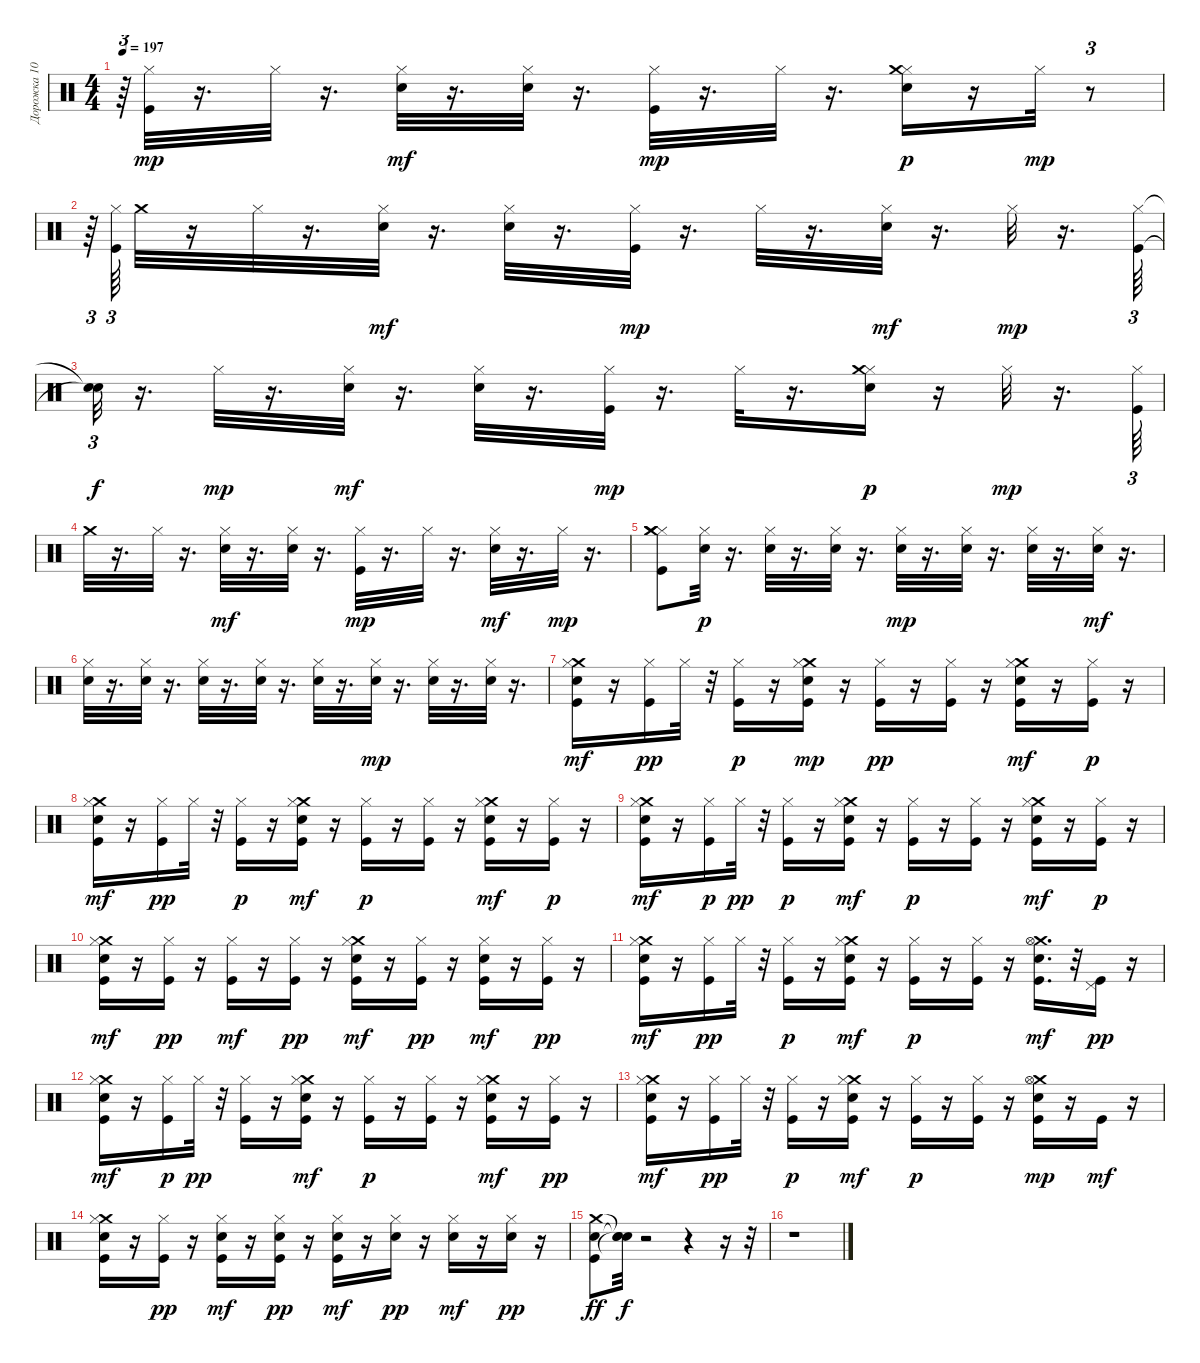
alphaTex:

\track ("Дорожка 10" "Дорожка 10") {instrument percussion}
\staff {score}
\articulation defaults
\ts (4 4)
\tempo 197
\clef neutral
\ks c
r.64{tu (3 2) dy mp} ("Hi-Hat (closed)" "Kick (hit)").32 r.16{d} "Hi-Hat (closed)".32 r.16{d} ("Hi-Hat (closed)" "Electric Snare (hit)").32{dy mf} r.16{d} ("Hi-Hat (closed)" "Electric Snare (hit)").32 r.16{d} ("Hi-Hat (closed)" "Kick (hit)").32{dy mp} r.16{d} "Hi-Hat (closed)".32 r.16{d} ("Hi-Hat (closed)" "Electric Snare (hit)" "Crash medium (hit)").16{dy p} r.16 "Hi-Hat (closed)".32{dy mp} r.8{tu (3 2)} |
r.64{tu (3 2)} ("Hi-Hat (closed)" "Kick (hit)").64{tu (3 2)} "Crash medium (hit)".32 r.16 "Hi-Hat (closed)".32 r.16{d} ("Hi-Hat (closed)" "Electric Snare (hit)").32{dy mf} r.16{d} ("Hi-Hat (closed)" "Electric Snare (hit)").32 r.16{d} ("Hi-Hat (closed)" "Kick (hit)").32{dy mp} r.16{d} "Hi-Hat (closed)".32 r.16{d} ("Hi-Hat (closed)" "Electric Snare (hit)").32{dy mf} r.16{d} "Hi-Hat (closed)".32{dy mp} r.16{d} ("Hi-Hat (closed)" "Kick (hit)").64{tu (3 2)} |
("Snare (hit)"{t} "Snare (hit)"{t}).32{tu (3 2) dy f} r.16{d} "Hi-Hat (closed)".32{dy mp} r.16{d} ("Hi-Hat (closed)" "Electric Snare (hit)").32{dy mf} r.16{d} ("Hi-Hat (closed)" "Electric Snare (hit)").32 r.16{d} ("Hi-Hat (closed)" "Kick (hit)").32{dy mp} r.16{d} "Hi-Hat (closed)".32 r.16{d} ("Hi-Hat (closed)" "Electric Snare (hit)" "Crash medium (hit)").16{dy p} r.16 "Hi-Hat (closed)".32{dy mp} r.16{d} ("Hi-Hat (closed)" "Kick (hit)").64{tu (3 2)} |
"Crash medium (hit)".32 r.16{d} "Hi-Hat (closed)".32 r.16{d} ("Hi-Hat (closed)" "Electric Snare (hit)").32{dy mf} r.16{d} ("Hi-Hat (closed)" "Electric Snare (hit)").32 r.16{d} ("Hi-Hat (closed)" "Kick (hit)").32{dy mp} r.16{d} "Hi-Hat (closed)".32 r.16{d} ("Hi-Hat (closed)" "Electric Snare (hit)").32{dy mf} r.16{d} "Hi-Hat (closed)".32{dy mp} r.16{d} |
("Hi-Hat (closed)" "Kick (hit)" "Crash medium (hit)" "Crash medium (hit)").8 ("Hi-Hat (closed)" "Electric Snare (hit)").32{dy p} r.16{d} ("Hi-Hat (closed)" "Electric Snare (hit)").32 r.16{d} ("Hi-Hat (closed)" "Electric Snare (hit)").32 r.16{d} ("Hi-Hat (closed)" "Electric Snare (hit)").32{dy mp} r.16{d} ("Hi-Hat (closed)" "Electric Snare (hit)").32 r.16{d} ("Hi-Hat (closed)" "Electric Snare (hit)").32 r.16{d} ("Hi-Hat (closed)" "Electric Snare (hit)").32{dy mf} r.16{d} |
("Hi-Hat (closed)" "Electric Snare (hit)").32 r.16{d} ("Hi-Hat (closed)" "Electric Snare (hit)").32 r.16{d} ("Hi-Hat (closed)" "Electric Snare (hit)").32 r.16{d} ("Hi-Hat (closed)" "Electric Snare (hit)").32 r.16{d} ("Hi-Hat (closed)" "Electric Snare (hit)").32 r.16{d} ("Hi-Hat (closed)" "Electric Snare (hit)").32{dy mp} r.16{d} ("Hi-Hat (closed)" "Electric Snare (hit)").32 r.16{d} ("Hi-Hat (closed)" "Electric Snare (hit)").32 r.16{d} |
("Snare (hit) 2" "Crash medium (hit)" "Kick (hit)" "Hi-Hat (closed)").16{dy mf} r.16 ("Kick (hit)" "Hi-Hat (closed)").16{dy pp} "Hi-Hat (closed)".32 r.32 ("Kick (hit)" "Hi-Hat (closed)").16{dy p} r.16 ("Crash medium (hit)" "Snare (hit) 2" "Kick (hit)" "Hi-Hat (closed)").16{dy mp} r.16 ("Kick (hit)" "Hi-Hat (closed)").16{dy pp} r.16 ("Kick (hit)" "Hi-Hat (closed)").16 r.16 ("Crash medium (hit)" "Snare (hit) 2" "Kick (hit)" "Hi-Hat (closed)").16{dy mf} r.16 ("Kick (hit)" "Hi-Hat (closed)").16{dy p} r.16 |
("Crash medium (hit)" "Snare (hit) 2" "Kick (hit)" "Hi-Hat (closed)").16{dy mf} r.16 ("Kick (hit)" "Hi-Hat (closed)").16{dy pp} "Hi-Hat (closed)".32 r.32 ("Kick (hit)" "Hi-Hat (closed)").16{dy p} r.16 ("Crash medium (hit)" "Snare (hit) 2" "Kick (hit)" "Hi-Hat (closed)").16{dy mf} r.16 ("Kick (hit)" "Hi-Hat (closed)").16{dy p} r.16 ("Kick (hit)" "Hi-Hat (closed)").16 r.16 ("Crash medium (hit)" "Snare (hit) 2" "Kick (hit)" "Hi-Hat (closed)").16{dy mf} r.16 ("Kick (hit)" "Hi-Hat (closed)").16{dy p} r.16 |
("Crash medium (hit)" "Snare (hit) 2" "Kick (hit)" "Hi-Hat (closed)").16{dy mf} r.16 ("Kick (hit)" "Hi-Hat (closed)").16{dy p} "Hi-Hat (closed)".32{dy pp} r.32 ("Kick (hit)" "Hi-Hat (closed)").16{dy p} r.16 ("Crash medium (hit)" "Snare (hit) 2" "Kick (hit)" "Hi-Hat (closed)").16{dy mf} r.16 ("Kick (hit)" "Hi-Hat (closed)").16{dy p} r.16 ("Kick (hit)" "Hi-Hat (closed)").16 r.16 ("Crash medium (hit)" "Snare (hit) 2" "Kick (hit)" "Hi-Hat (closed)").16{dy mf} r.16 ("Kick (hit)" "Hi-Hat (closed)").16{dy p} r.16 |
("Crash medium (hit)" "Snare (hit) 2" "Kick (hit)" "Hi-Hat (closed)").16{dy mf} r.16 ("Kick (hit)" "Hi-Hat (closed)").16{dy pp} r.16 ("Kick (hit)" "Hi-Hat (closed)").16{dy mf} r.16 ("Kick (hit)" "Hi-Hat (closed)").16{dy pp} r.16 ("Snare (hit) 2" "Crash medium (hit)" "Kick (hit)" "Hi-Hat (closed)").16{dy mf} r.16 ("Kick (hit)" "Hi-Hat (closed)").16{dy pp} r.16 ("Snare (hit) 2" "Kick (hit)" "Hi-Hat (closed)").16{dy mf} r.16 ("Kick (hit)" "Hi-Hat (closed)").16{dy pp} r.16 |
("Crash medium (hit)" "Snare (hit) 2" "Kick (hit)" "Hi-Hat (closed)").16{dy mf} r.16 ("Kick (hit)" "Hi-Hat (closed)").16{dy pp} "Hi-Hat (closed)".32 r.32 ("Kick (hit)" "Hi-Hat (closed)").16{dy p} r.16 ("Snare (hit) 2" "Crash medium (hit)" "Kick (hit)" "Hi-Hat (closed)").16{dy mf} r.16 ("Kick (hit)" "Hi-Hat (closed)").16{dy p} r.16 ("Kick (hit)" "Hi-Hat (closed)").16 r.16 ("Crash medium (hit)" "Snare (hit) 2" "Kick (hit)" "Hi-Hat (open)").16{d dy mf} r.32 ("Kick (hit)" "Pedal Hi-Hat (hit)").16{dy pp} r.16 |
("Crash medium (hit)" "Snare (hit) 2" "Kick (hit)" "Hi-Hat (closed)").16{dy mf} r.16 ("Kick (hit)" "Hi-Hat (closed)").16{dy p} "Hi-Hat (closed)".32{dy pp} r.32 ("Kick (hit)" "Hi-Hat (closed)").16 r.16 ("Snare (hit) 2" "Crash medium (hit)" "Kick (hit)" "Hi-Hat (closed)").16{dy mf} r.16 ("Kick (hit)" "Hi-Hat (closed)").16{dy p} r.16 ("Kick (hit)" "Hi-Hat (closed)").16 r.16 ("Crash medium (hit)" "Snare (hit) 2" "Kick (hit)" "Hi-Hat (closed)").16{dy mf} r.16 ("Kick (hit)" "Hi-Hat (closed)").16{dy pp} r.16 |
("Crash medium (hit)" "Snare (hit) 2" "Kick (hit)" "Hi-Hat (closed)").16{dy mf} r.16 ("Kick (hit)" "Hi-Hat (closed)").16{dy pp} "Hi-Hat (closed)".32 r.32 ("Kick (hit)" "Hi-Hat (closed)").16{dy p} r.16 ("Snare (hit) 2" "Crash medium (hit)" "Kick (hit)" "Hi-Hat (closed)").16{dy mf} r.16 ("Kick (hit)" "Hi-Hat (closed)").16{dy p} r.16 ("Kick (hit)" "Hi-Hat (closed)").16 r.16 ("Crash medium (hit)" "Snare (hit) 2" "Kick (hit)" "Hi-Hat (open)").16{dy mp} r.16 "Kick (hit)".16{dy mf} r.16 |
("Crash medium (hit)" "Snare (hit) 2" "Kick (hit)" "Hi-Hat (closed)").16 r.16 ("Kick (hit)" "Hi-Hat (closed)").16{dy pp} r.16 ("Snare (hit) 2" "Kick (hit)" "Hi-Hat (closed)").16{dy mf} r.16 ("Snare (hit) 2" "Kick (hit)" "Hi-Hat (closed)").16{dy pp} r.16 ("Snare (hit) 2" "Kick (hit)" "Hi-Hat (closed)").16{dy mf} r.16 ("Snare (hit) 2" "Hi-Hat (closed)").16{dy pp} r.16 ("Snare (hit) 2" "Hi-Hat (closed)").16{dy mf} r.16 ("Snare (hit) 2" "Hi-Hat (closed)").16{dy pp} r.16 |
("Crash medium (hit)" "Electric Snare (hit)" "Kick (hit)").8{dy ff} ("Snare (hit)"{t} "Snare (hit)"{t} "Snare (hit)"{t}).32{dy f} r.2 r.4 r.16 r.32 |
r.1
